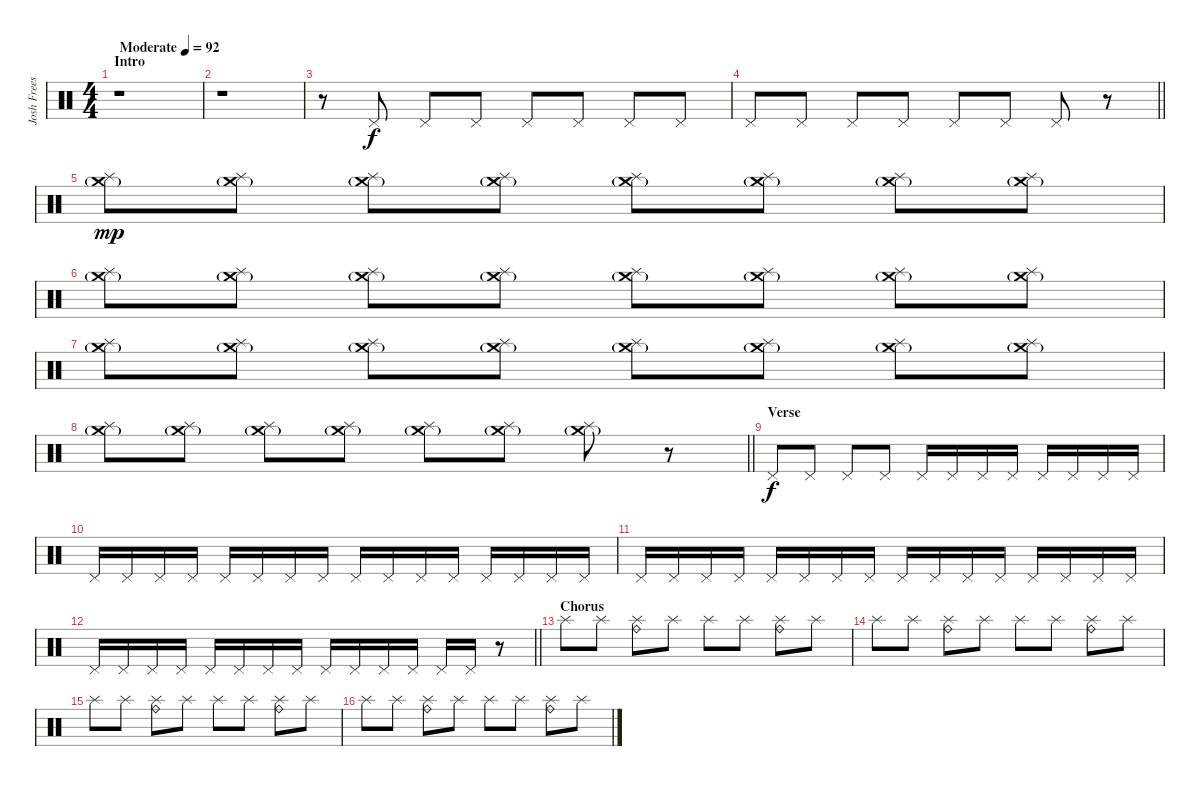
\track ("Josh Freese (Studio Drummer)" "Josh Frees") {instrument percussion}
\staff {score}
\articulation defaults
\ts (4 4)
\section ("" "Intro")
\tempo (92 "Moderate")
\clef neutral
\ks c
r.1{dy f} |
r.1 |
r.8 "Pedal Hi-Hat (hit)".8 "Pedal Hi-Hat (hit)".8 "Pedal Hi-Hat (hit)".8 "Pedal Hi-Hat (hit)".8 "Pedal Hi-Hat (hit)".8 "Pedal Hi-Hat (hit)".8 "Pedal Hi-Hat (hit)".8 |
\barLineRight lightlight "Pedal Hi-Hat (hit)".8 "Pedal Hi-Hat (hit)".8 "Pedal Hi-Hat (hit)".8 "Pedal Hi-Hat (hit)".8 "Pedal Hi-Hat (hit)".8 "Pedal Hi-Hat (hit)".8 "Pedal Hi-Hat (hit)".8
r.8 |
("Crash medium (hit)"{g} "Splash (hit)").8{dy mp} ("Crash medium (hit)"{g} "Splash (hit)").8 ("Crash medium (hit)"{g} "Splash (hit)").8 ("Crash medium (hit)"{g} "Splash (hit)").8 ("Crash medium (hit)"{g} "Splash (hit)").8 ("Crash medium (hit)"{g} "Splash (hit)").8 ("Crash medium (hit)"{g} "Splash (hit)").8 ("Crash medium (hit)"{g} "Splash (hit)").8 |
("Crash medium (hit)"{g} "Splash (hit)").8 ("Crash medium (hit)"{g} "Splash (hit)").8 ("Crash medium (hit)"{g} "Splash (hit)").8 ("Crash medium (hit)"{g} "Splash (hit)").8 ("Crash medium (hit)"{g} "Splash (hit)").8 ("Crash medium (hit)"{g} "Splash (hit)").8 ("Crash medium (hit)"{g} "Splash (hit)").8 ("Crash medium (hit)"{g} "Splash (hit)").8 |
("Crash medium (hit)"{g} "Splash (hit)").8 ("Crash medium (hit)"{g} "Splash (hit)").8 ("Crash medium (hit)"{g} "Splash (hit)").8 ("Crash medium (hit)"{g} "Splash (hit)").8 ("Crash medium (hit)"{g} "Splash (hit)").8 ("Crash medium (hit)"{g} "Splash (hit)").8 ("Crash medium (hit)"{g} "Splash (hit)").8 ("Crash medium (hit)"{g} "Splash (hit)").8 |
\barLineRight lightlight
("Crash medium (hit)"{g} "Splash (hit)").8 ("Crash medium (hit)"{g} "Splash (hit)").8 ("Crash medium (hit)"{g} "Splash (hit)").8 ("Crash medium (hit)"{g} "Splash (hit)").8 ("Crash medium (hit)"{g} "Splash (hit)").8 ("Crash medium (hit)"{g} "Splash (hit)").8 ("Crash medium (hit)"{g} "Splash (hit)").8 r.8 |
\section ("" "Verse")
"Pedal Hi-Hat (hit)".8{dy f} "Pedal Hi-Hat (hit)".8 "Pedal Hi-Hat (hit)".8 "Pedal Hi-Hat (hit)".8 "Pedal Hi-Hat (hit)".16 "Pedal Hi-Hat (hit)".16 "Pedal Hi-Hat (hit)".16 "Pedal Hi-Hat (hit)".16 "Pedal Hi-Hat (hit)".16 "Pedal Hi-Hat (hit)".16 "Pedal Hi-Hat (hit)".16 "Pedal Hi-Hat (hit)".16 |
"Pedal Hi-Hat (hit)".16 "Pedal Hi-Hat (hit)".16 "Pedal Hi-Hat (hit)".16 "Pedal Hi-Hat (hit)".16 "Pedal Hi-Hat (hit)".16 "Pedal Hi-Hat (hit)".16 "Pedal Hi-Hat (hit)".16 "Pedal Hi-Hat (hit)".16 "Pedal Hi-Hat (hit)".16 "Pedal Hi-Hat (hit)".16 "Pedal Hi-Hat (hit)".16 "Pedal Hi-Hat (hit)".16 "Pedal Hi-Hat (hit)".16 "Pedal Hi-Hat (hit)".16 "Pedal Hi-Hat (hit)".16 "Pedal Hi-Hat (hit)".16 |
"Pedal Hi-Hat (hit)".16 "Pedal Hi-Hat (hit)".16 "Pedal Hi-Hat (hit)".16 "Pedal Hi-Hat (hit)".16 "Pedal Hi-Hat (hit)".16 "Pedal Hi-Hat (hit)".16 "Pedal Hi-Hat (hit)".16 "Pedal Hi-Hat (hit)".16 "Pedal Hi-Hat (hit)".16 "Pedal Hi-Hat (hit)".16 "Pedal Hi-Hat (hit)".16 "Pedal Hi-Hat (hit)".16 "Pedal Hi-Hat (hit)".16 "Pedal Hi-Hat (hit)".16 "Pedal Hi-Hat (hit)".16 "Pedal Hi-Hat (hit)".16 |
\barLineRight lightlight "Pedal Hi-Hat (hit)".16 "Pedal Hi-Hat (hit)".16 "Pedal Hi-Hat (hit)".16 "Pedal Hi-Hat (hit)".16 "Pedal Hi-Hat (hit)".16 "Pedal Hi-Hat (hit)".16 "Pedal Hi-Hat (hit)".16 "Pedal Hi-Hat (hit)".16 "Pedal Hi-Hat (hit)".16 "Pedal Hi-Hat (hit)".16 "Pedal Hi-Hat (hit)".16 "Pedal Hi-Hat (hit)".16 "Pedal Hi-Hat (hit)".16 "Pedal Hi-Hat (hit)".16
r.8 |
\section ("" "Chorus")
"Splash (hit)".8 "Splash (hit)".8 ("Splash (hit)" "Ride (bell)").8 "Splash (hit)".8 "Splash (hit)".8 "Splash (hit)".8 ("Splash (hit)" "Ride (bell)").8 "Splash (hit)".8 |
"Splash (hit)".8 "Splash (hit)".8 ("Splash (hit)" "Ride (bell)").8 "Splash (hit)".8 "Splash (hit)".8 "Splash (hit)".8 ("Splash (hit)" "Ride (bell)").8 "Splash (hit)".8 |
"Splash (hit)".8 "Splash (hit)".8 ("Splash (hit)" "Ride (bell)").8 "Splash (hit)".8 "Splash (hit)".8 "Splash (hit)".8 ("Splash (hit)" "Ride (bell)").8 "Splash (hit)".8 |
"Splash (hit)".8 "Splash (hit)".8 ("Splash (hit)" "Ride (bell)").8 "Splash (hit)".8 "Splash (hit)".8 "Splash (hit)".8 ("Splash (hit)" "Ride (bell)").8 "Splash (hit)".8
